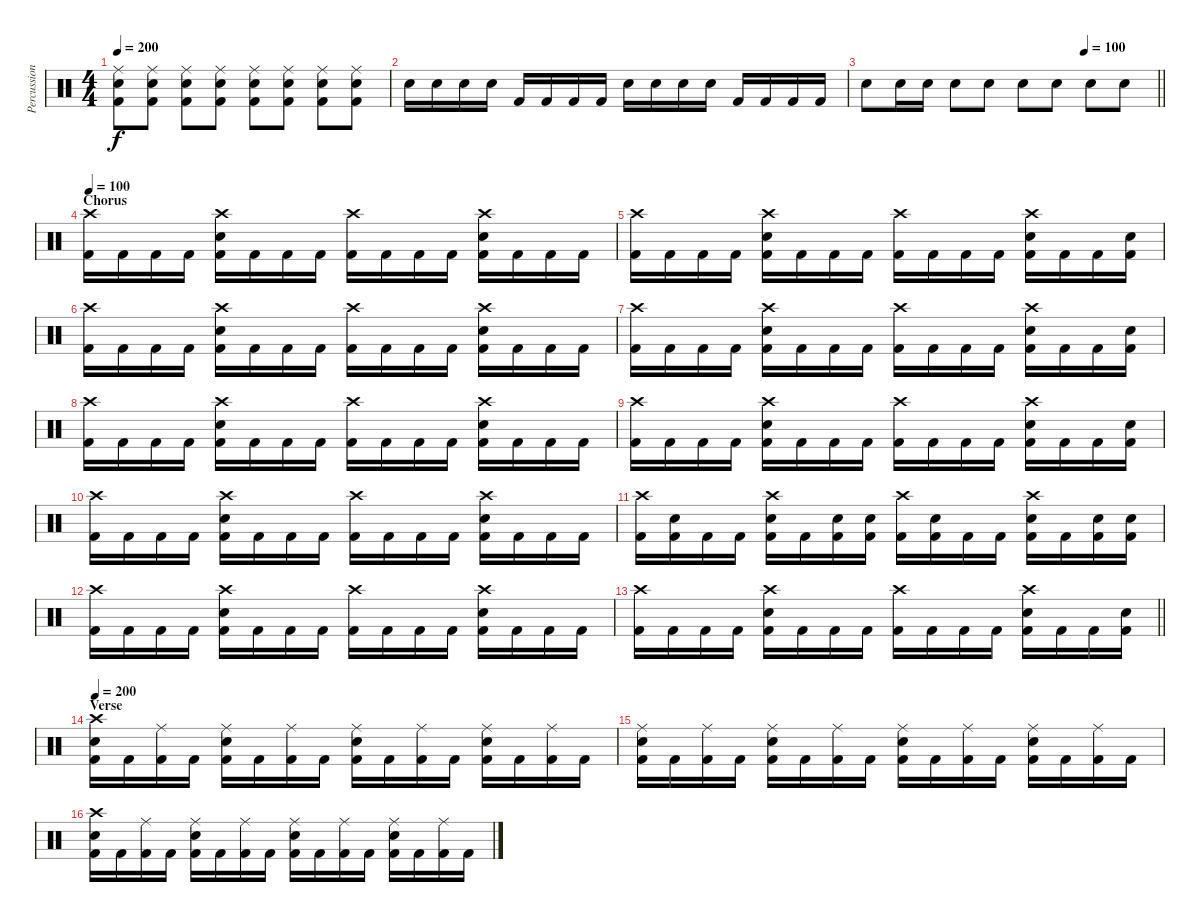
\track ("Percussion" "Percussion") {instrument percussion}
\staff {score}
\articulation defaults
\ts (4 4)
\tempo 200
\clef neutral
\ks c
("Ride (middle)" "Electric Snare (hit)" "Kick (hit) 2").8{dy f} ("Ride (middle)" "Electric Snare (hit)" "Kick (hit) 2").8 ("Ride (middle)" "Electric Snare (hit)" "Kick (hit) 2").8 ("Ride (middle)" "Electric Snare (hit)" "Kick (hit) 2").8 ("Ride (middle)" "Electric Snare (hit)" "Kick (hit) 2").8 ("Ride (middle)" "Electric Snare (hit)" "Kick (hit) 2").8 ("Ride (middle)" "Electric Snare (hit)" "Kick (hit) 2").8 ("Ride (middle)" "Electric Snare (hit)" "Kick (hit) 2").8 |
"Electric Snare (hit)".16 "Electric Snare (hit)".16 "Electric Snare (hit)".16 "Electric Snare (hit)".16 "Kick (hit) 2".16 "Kick (hit) 2".16 "Kick (hit) 2".16 "Kick (hit) 2".16 "Electric Snare (hit)".16 "Electric Snare (hit)".16 "Electric Snare (hit)".16 "Electric Snare (hit)".16 "Kick (hit) 2".16 "Kick (hit) 2".16 "Kick (hit) 2".16 "Kick (hit) 2".16 |
\tempo (100 0.75)
\barLineRight lightlight "Electric Snare (hit)".8 "Electric Snare (hit)".16 "Electric Snare (hit)".16 "Electric Snare (hit)".8 "Electric Snare (hit)".8 "Electric Snare (hit)".8 "Electric Snare (hit)".8 "Electric Snare (hit)".8 "Electric Snare (hit)".8
|
\section ("" "Chorus")
\tempo 100
("Crash high (hit)" "Kick (hit) 2").16 "Kick (hit) 2".16 "Kick (hit) 2".16 "Kick (hit) 2".16 ("Crash high (hit)" "Electric Snare (hit)" "Kick (hit) 2").16 "Kick (hit) 2".16 "Kick (hit) 2".16 "Kick (hit) 2".16 ("Crash high (hit)" "Kick (hit) 2").16 "Kick (hit) 2".16 "Kick (hit) 2".16 "Kick (hit) 2".16 ("Crash high (hit)" "Electric Snare (hit)" "Kick (hit) 2").16 "Kick (hit) 2".16 "Kick (hit) 2".16 "Kick (hit) 2".16 |
("Crash high (hit)" "Kick (hit) 2").16 "Kick (hit) 2".16 "Kick (hit) 2".16 "Kick (hit) 2".16 ("Crash high (hit)" "Electric Snare (hit)" "Kick (hit) 2").16 "Kick (hit) 2".16 "Kick (hit) 2".16 "Kick (hit) 2".16 ("Crash high (hit)" "Kick (hit) 2").16 "Kick (hit) 2".16 "Kick (hit) 2".16 "Kick (hit) 2".16 ("Crash high (hit)" "Electric Snare (hit)" "Kick (hit) 2").16 "Kick (hit) 2".16 "Kick (hit) 2".16 ("Electric Snare (hit)" "Kick (hit) 2").16 |
("Crash high (hit)" "Kick (hit) 2").16 "Kick (hit) 2".16 "Kick (hit) 2".16 "Kick (hit) 2".16 ("Crash high (hit)" "Electric Snare (hit)" "Kick (hit) 2").16 "Kick (hit) 2".16 "Kick (hit) 2".16 "Kick (hit) 2".16 ("Crash high (hit)" "Kick (hit) 2").16 "Kick (hit) 2".16 "Kick (hit) 2".16 "Kick (hit) 2".16 ("Crash high (hit)" "Electric Snare (hit)" "Kick (hit) 2").16 "Kick (hit) 2".16 "Kick (hit) 2".16 "Kick (hit) 2".16 |
("Crash high (hit)" "Kick (hit) 2").16 "Kick (hit) 2".16 "Kick (hit) 2".16 "Kick (hit) 2".16 ("Crash high (hit)" "Electric Snare (hit)" "Kick (hit) 2").16 "Kick (hit) 2".16 "Kick (hit) 2".16 "Kick (hit) 2".16 ("Crash high (hit)" "Kick (hit) 2").16 "Kick (hit) 2".16 "Kick (hit) 2".16 "Kick (hit) 2".16 ("Crash high (hit)" "Electric Snare (hit)" "Kick (hit) 2").16 "Kick (hit) 2".16 "Kick (hit) 2".16 ("Electric Snare (hit)" "Kick (hit) 2").16 |
("Crash high (hit)" "Kick (hit) 2").16 "Kick (hit) 2".16 "Kick (hit) 2".16 "Kick (hit) 2".16 ("Crash high (hit)" "Electric Snare (hit)" "Kick (hit) 2").16 "Kick (hit) 2".16 "Kick (hit) 2".16 "Kick (hit) 2".16 ("Crash high (hit)" "Kick (hit) 2").16 "Kick (hit) 2".16 "Kick (hit) 2".16 "Kick (hit) 2".16 ("Crash high (hit)" "Electric Snare (hit)" "Kick (hit) 2").16 "Kick (hit) 2".16 "Kick (hit) 2".16 "Kick (hit) 2".16 |
("Crash high (hit)" "Kick (hit) 2").16 "Kick (hit) 2".16 "Kick (hit) 2".16 "Kick (hit) 2".16 ("Crash high (hit)" "Electric Snare (hit)" "Kick (hit) 2").16 "Kick (hit) 2".16 "Kick (hit) 2".16 "Kick (hit) 2".16 ("Crash high (hit)" "Kick (hit) 2").16 "Kick (hit) 2".16 "Kick (hit) 2".16 "Kick (hit) 2".16 ("Crash high (hit)" "Electric Snare (hit)" "Kick (hit) 2").16 "Kick (hit) 2".16 "Kick (hit) 2".16 ("Electric Snare (hit)" "Kick (hit) 2").16 |
("Crash high (hit)" "Kick (hit) 2").16 "Kick (hit) 2".16 "Kick (hit) 2".16 "Kick (hit) 2".16 ("Crash high (hit)" "Electric Snare (hit)" "Kick (hit) 2").16 "Kick (hit) 2".16 "Kick (hit) 2".16 "Kick (hit) 2".16 ("Crash high (hit)" "Kick (hit) 2").16 "Kick (hit) 2".16 "Kick (hit) 2".16 "Kick (hit) 2".16 ("Crash high (hit)" "Electric Snare (hit)" "Kick (hit) 2").16 "Kick (hit) 2".16 "Kick (hit) 2".16 "Kick (hit) 2".16 |
("Crash high (hit)" "Kick (hit) 2").16 ("Electric Snare (hit)" "Kick (hit) 2").16 "Kick (hit) 2".16 "Kick (hit) 2".16 ("Crash high (hit)" "Electric Snare (hit)" "Kick (hit) 2").16 "Kick (hit) 2".16 ("Electric Snare (hit)" "Kick (hit) 2").16 ("Electric Snare (hit)" "Kick (hit) 2").16 ("Crash high (hit)" "Kick (hit) 2").16 ("Electric Snare (hit)" "Kick (hit) 2").16 "Kick (hit) 2".16 "Kick (hit) 2".16 ("Crash high (hit)" "Electric Snare (hit)" "Kick (hit) 2").16 "Kick (hit) 2".16 ("Electric Snare (hit)" "Kick (hit) 2").16 ("Electric Snare (hit)" "Kick (hit) 2").16 |
("Crash high (hit)" "Kick (hit) 2").16 "Kick (hit) 2".16 "Kick (hit) 2".16 "Kick (hit) 2".16 ("Crash high (hit)" "Electric Snare (hit)" "Kick (hit) 2").16 "Kick (hit) 2".16 "Kick (hit) 2".16 "Kick (hit) 2".16 ("Crash high (hit)" "Kick (hit) 2").16 "Kick (hit) 2".16 "Kick (hit) 2".16 "Kick (hit) 2".16 ("Crash high (hit)" "Electric Snare (hit)" "Kick (hit) 2").16 "Kick (hit) 2".16 "Kick (hit) 2".16 "Kick (hit) 2".16 |
\barLineRight lightlight
("Crash high (hit)" "Kick (hit) 2").16 "Kick (hit) 2".16 "Kick (hit) 2".16 "Kick (hit) 2".16 ("Crash high (hit)" "Electric Snare (hit)" "Kick (hit) 2").16 "Kick (hit) 2".16 "Kick (hit) 2".16 "Kick (hit) 2".16 ("Crash high (hit)" "Kick (hit) 2").16 "Kick (hit) 2".16 "Kick (hit) 2".16 "Kick (hit) 2".16 ("Crash high (hit)" "Electric Snare (hit)" "Kick (hit) 2").16 "Kick (hit) 2".16 "Kick (hit) 2".16 ("Electric Snare (hit)" "Kick (hit) 2").16 |
\section ("" "Verse")
\tempo 200
("Crash high (hit)" "Electric Snare (hit)" "Kick (hit) 2").16 "Kick (hit) 2".16 ("Ride (middle)" "Kick (hit) 2").16 "Kick (hit) 2".16 ("Ride (middle)" "Electric Snare (hit)" "Kick (hit) 2").16 "Kick (hit) 2".16 ("Ride (middle)" "Kick (hit) 2").16 "Kick (hit) 2".16 ("Ride (middle)" "Electric Snare (hit)" "Kick (hit) 2").16 "Kick (hit) 2".16 ("Ride (middle)" "Kick (hit) 2").16 "Kick (hit) 2".16 ("Ride (middle)" "Electric Snare (hit)" "Kick (hit) 2").16 "Kick (hit) 2".16 ("Ride (middle)" "Kick (hit) 2").16 "Kick (hit) 2".16 |
("Ride (middle)" "Electric Snare (hit)" "Kick (hit) 2").16 "Kick (hit) 2".16 ("Ride (middle)" "Kick (hit) 2").16 "Kick (hit) 2".16 ("Ride (middle)" "Electric Snare (hit)" "Kick (hit) 2").16 "Kick (hit) 2".16 ("Ride (middle)" "Kick (hit) 2").16 "Kick (hit) 2".16 ("Ride (middle)" "Electric Snare (hit)" "Kick (hit) 2").16 "Kick (hit) 2".16 ("Ride (middle)" "Kick (hit) 2").16 "Kick (hit) 2".16 ("Ride (middle)" "Electric Snare (hit)" "Kick (hit) 2").16 "Kick (hit) 2".16 ("Ride (middle)" "Kick (hit) 2").16 "Kick (hit) 2".16 |
("Crash high (hit)" "Electric Snare (hit)" "Kick (hit) 2").16 "Kick (hit) 2".16 ("Ride (middle)" "Kick (hit) 2").16 "Kick (hit) 2".16 ("Ride (middle)" "Electric Snare (hit)" "Kick (hit) 2").16 "Kick (hit) 2".16 ("Ride (middle)" "Kick (hit) 2").16 "Kick (hit) 2".16 ("Ride (middle)" "Electric Snare (hit)" "Kick (hit) 2").16 "Kick (hit) 2".16 ("Ride (middle)" "Kick (hit) 2").16 "Kick (hit) 2".16 ("Ride (middle)" "Electric Snare (hit)" "Kick (hit) 2").16 "Kick (hit) 2".16 ("Ride (middle)" "Kick (hit) 2").16 "Kick (hit) 2".16
